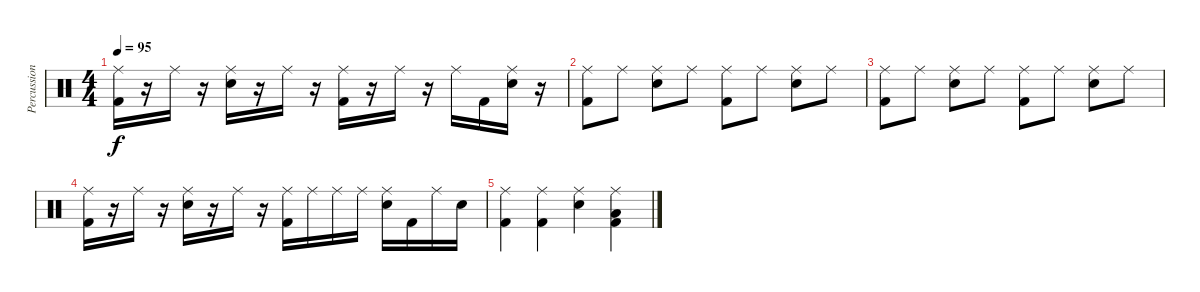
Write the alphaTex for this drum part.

\track ("Percussion" "Percussion") {instrument percussion}
\staff
\articulation defaults
\ts (4 4)
\tempo 95
\clef neutral
\ks c
("Ride (middle)" "Kick (hit) 2").16{dy f} r.16 "Ride (middle)".16 r.16 ("Ride (middle)" "Electric Snare (hit)").16 r.16 "Ride (middle)".16 r.16 ("Ride (middle)" "Kick (hit) 2").16 r.16 "Ride (middle)".16 r.16 "Ride (middle)".16 "Kick (hit) 2".16 ("Ride (middle)" "Electric Snare (hit)").16 r.16 |
("Ride (middle)" "Kick (hit) 2").8 "Ride (middle)".8 ("Ride (middle)" "Electric Snare (hit)").8 "Ride (middle)".8 ("Ride (middle)" "Kick (hit) 2").8 "Ride (middle)".8 ("Ride (middle)" "Electric Snare (hit)").8 "Ride (middle)".8 |
("Ride (middle)" "Kick (hit) 2").8 "Ride (middle)".8 ("Ride (middle)" "Electric Snare (hit)").8 "Ride (middle)".8 ("Ride (middle)" "Kick (hit) 2").8 "Ride (middle)".8 ("Ride (middle)" "Electric Snare (hit)").8 "Ride (middle)".8 |
("Ride (middle)" "Kick (hit) 2").16 r.16 "Ride (middle)".16 r.16 ("Ride (middle)" "Electric Snare (hit)").16 r.16 "Ride (middle)".16 r.16 ("Ride (middle)" "Kick (hit) 2").16 "Ride (middle)".16 "Ride (middle)".16 "Ride (middle)".16 ("Ride (middle)" "Electric Snare (hit)").16 "Kick (hit) 2".16 "Ride (middle)".16 "Electric Snare (hit)".16 |
("Ride (middle)" "Kick (hit) 2").4 ("Ride (middle)" "Kick (hit) 2").4 ("Ride (middle)" "Electric Snare (hit)").4 ("Ride (middle)" "Low Floor Tom (hit)" "Kick (hit) 2").4
